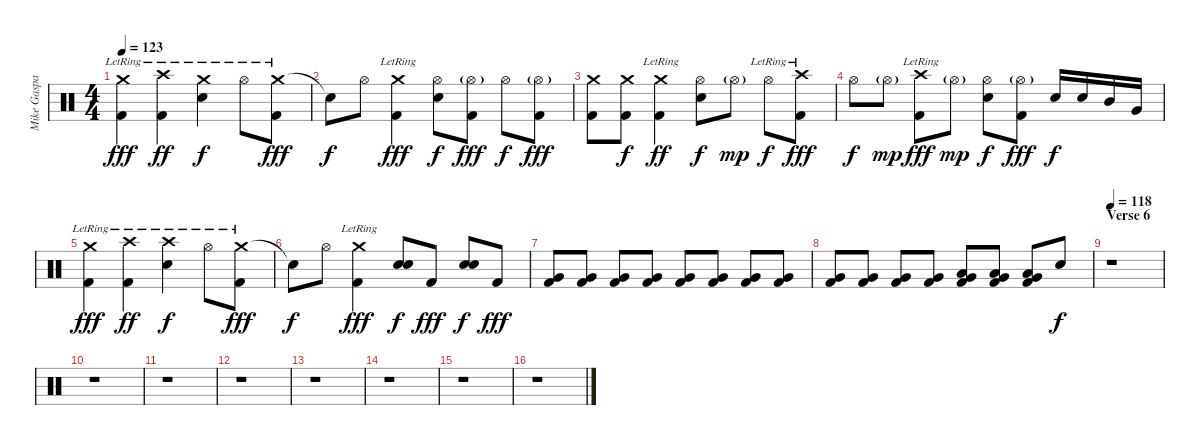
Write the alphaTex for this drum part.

\track ("Mike Gaspar (Drums)" "Mike Gaspa") {instrument percussion}
\staff {score}
\articulation defaults
\ts (4 4)
\tempo 123
\clef neutral
\ks c
("Crash medium (hit)"{lr} "Kick (hit) 2").4{dy fff} ("Crash high (hit)"{lr} "Kick (hit) 2").4{dy ff} ("Crash medium (hit)"{lr} "Snare (hit) 2").4{dy f} "Hi-Hat (open)"{lr}.8 ("Crash medium (hit)"{lr} "Kick (hit) 2").8{dy fff} |
"Snare (hit)"{t}.8{dy f} "Hi-Hat (open)".8 ("Crash medium (hit)"{lr} "Kick (hit) 2").4{dy fff} ("Hi-Hat (open)" "Snare (hit) 2").8{dy f} ("Hi-Hat (open)"{g} "Kick (hit) 2").8{dy fff} "Hi-Hat (open)".8{dy f} ("Hi-Hat (open)"{g} "Kick (hit) 2").8{dy fff} |
("Crash medium (hit)" "Kick (hit) 2").8 ("Crash medium (hit)" "Kick (hit) 2").8{dy f} ("Crash medium (hit)"{lr} "Kick (hit) 2").4{dy ff} ("Hi-Hat (open)" "Snare (hit) 2").8{dy f} "Hi-Hat (open)"{g}.8{dy mp} "Hi-Hat (open)"{lr}.8{dy f} ("Crash high (hit)"{lr} "Kick (hit) 2").8{dy fff} |
"Hi-Hat (open)".8{dy f} "Hi-Hat (open)"{g}.8{dy mp} ("Crash high (hit)"{lr} "Kick (hit) 2").8{dy fff} "Hi-Hat (open)"{g}.8{dy mp} ("Hi-Hat (open)" "Snare (hit) 2").8{dy f} ("Hi-Hat (open)"{g} "Kick (hit) 2").8{dy fff} "Snare (hit) 2".16{dy f} "Snare (hit) 2".16 "Mid Tom (hit)".16 "Very Low Tom (hit)".16 |
("Crash medium (hit)"{lr} "Kick (hit) 2").4{dy fff} ("Crash high (hit)"{lr} "Kick (hit) 2").4{dy ff} ("Crash high (hit)"{lr} "Snare (hit) 2").4{dy f} "Hi-Hat (open)"{lr}.8 ("Crash medium (hit)"{lr} "Kick (hit) 2").8{dy fff} |
"Snare (hit)"{t}.8{dy f} "Hi-Hat (open)".8 ("Crash medium (hit)"{lr} "Kick (hit) 2").4{dy fff} ("Snare (hit) 2" "Snare (hit) 2").8{bd 60 dy f} "Kick (hit) 2".8{dy fff} ("Snare (hit) 2" "Snare (hit) 2").8{bd 60 dy f} "Kick (hit) 2".8{dy fff} |
("Very Low Tom (hit)" "Kick (hit) 2").8 ("Very Low Tom (hit)" "Kick (hit) 2").8 ("Very Low Tom (hit)" "Kick (hit) 2").8 ("Very Low Tom (hit)" "Kick (hit) 2").8 ("Very Low Tom (hit)" "Kick (hit) 2").8 ("Very Low Tom (hit)" "Kick (hit) 2").8 ("Very Low Tom (hit)" "Kick (hit) 2").8 ("Very Low Tom (hit)" "Kick (hit) 2").8 |
("Very Low Tom (hit)" "Kick (hit) 2").8 ("Very Low Tom (hit)" "Kick (hit) 2").8 ("Very Low Tom (hit)" "Kick (hit) 2").8 ("Very Low Tom (hit)" "Kick (hit) 2").8 ("Low Tom (hit)" "Very Low Tom (hit)" "Kick (hit) 2").8 ("Low Tom (hit)" "Very Low Tom (hit)" "Kick (hit) 2").8 ("Low Tom (hit)" "Very Low Tom (hit)" "Kick (hit) 2").8 "Snare (hit) 2".8{dy f} |
\section ("" "Verse 6")
\tempo 118
r.1 |
r.1 |
r.1 |
r.1 |
r.1 |
r.1 |
r.1 |
r.1
